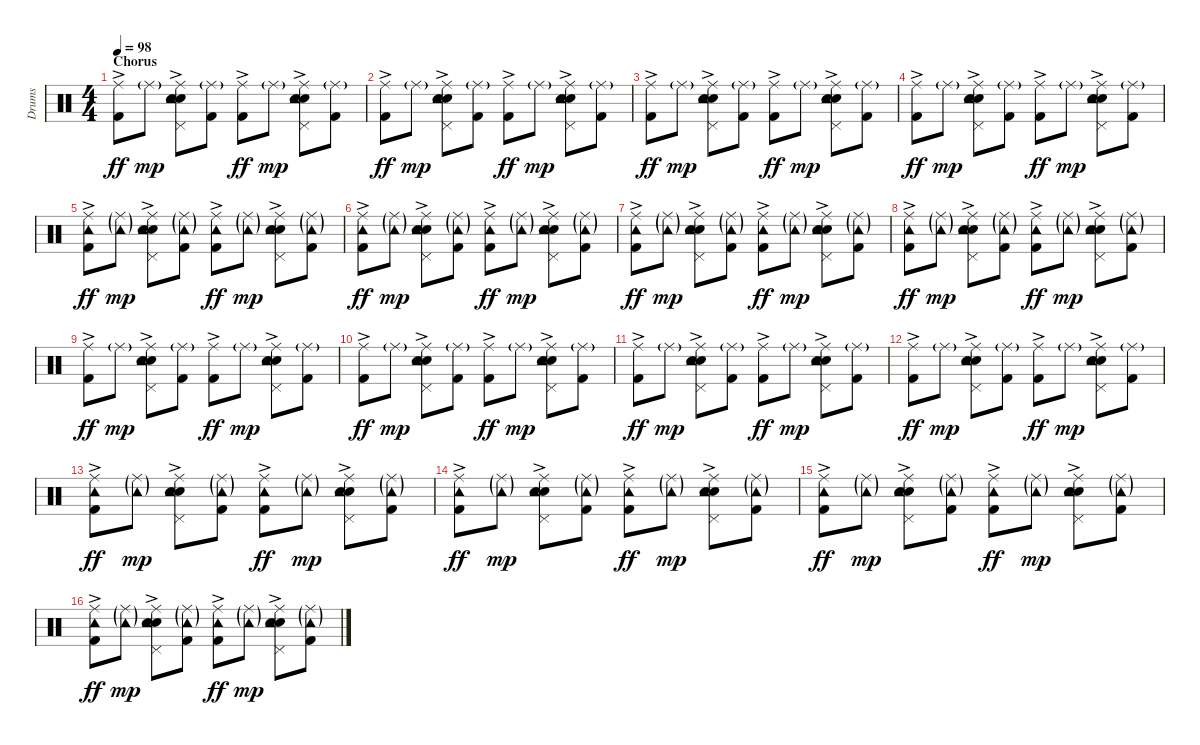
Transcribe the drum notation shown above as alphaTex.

\track ("Drums" "Drums") {instrument percussion}
\staff {score}
\articulation defaults
\ts (4 4)
\section ("" "Chorus")
\tempo 98
\clef neutral
\ks c
("Kick (hit) 2"{ac} "Ride (middle)").8{dy ff} "Ride (middle)"{g}.8{dy mp} ("Electric Snare (hit)"{ac} "Snare (hit) 2" "Pedal Hi-Hat (hit)" "Tambourine (hit)" "Ride (middle)").8 ("Kick (hit) 2" "Ride (middle)"{g}).8 ("Kick (hit) 2"{ac} "Ride (middle)").8{dy ff} "Ride (middle)"{g}.8{dy mp} ("Electric Snare (hit)"{ac} "Snare (hit) 2" "Pedal Hi-Hat (hit)" "Tambourine (hit)" "Ride (middle)").8 ("Kick (hit) 2" "Ride (middle)"{g}).8 |
("Kick (hit) 2"{ac} "Ride (middle)").8{dy ff} "Ride (middle)"{g}.8{dy mp} ("Electric Snare (hit)"{ac} "Snare (hit) 2" "Pedal Hi-Hat (hit)" "Tambourine (hit)" "Ride (middle)").8 ("Kick (hit) 2" "Ride (middle)"{g}).8 ("Kick (hit) 2"{ac} "Ride (middle)").8{dy ff} "Ride (middle)"{g}.8{dy mp} ("Electric Snare (hit)"{ac} "Snare (hit) 2" "Pedal Hi-Hat (hit)" "Tambourine (hit)" "Ride (middle)").8 ("Kick (hit) 2" "Ride (middle)"{g}).8 |
("Kick (hit) 2"{ac} "Ride (middle)").8{dy ff} "Ride (middle)"{g}.8{dy mp} ("Electric Snare (hit)"{ac} "Snare (hit) 2" "Pedal Hi-Hat (hit)" "Tambourine (hit)" "Ride (middle)").8 ("Kick (hit) 2" "Ride (middle)"{g}).8 ("Kick (hit) 2"{ac} "Ride (middle)").8{dy ff} "Ride (middle)"{g}.8{dy mp} ("Electric Snare (hit)"{ac} "Snare (hit) 2" "Pedal Hi-Hat (hit)" "Tambourine (hit)" "Ride (middle)").8 ("Kick (hit) 2" "Ride (middle)"{g}).8 |
("Kick (hit) 2"{ac} "Ride (middle)").8{dy ff} "Ride (middle)"{g}.8{dy mp} ("Electric Snare (hit)"{ac} "Snare (hit) 2" "Pedal Hi-Hat (hit)" "Tambourine (hit)" "Ride (middle)").8 ("Kick (hit) 2" "Ride (middle)"{g}).8 ("Kick (hit) 2"{ac} "Ride (middle)").8{dy ff} "Ride (middle)"{g}.8{dy mp} ("Electric Snare (hit)"{ac} "Snare (hit) 2" "Pedal Hi-Hat (hit)" "Tambourine (hit)" "Ride (middle)").8 ("Kick (hit) 2" "Ride (middle)"{g}).8 |
("Kick (hit) 2"{ac} "Tambourine (hit)" "Ride (middle)").8{dy ff} ("Tambourine (hit)"{g} "Ride (middle)"{g}).8{dy mp} ("Electric Snare (hit)"{ac} "Snare (hit) 2" "Pedal Hi-Hat (hit)" "Tambourine (hit)" "Ride (middle)").8 ("Kick (hit) 2" "Tambourine (hit)"{g} "Ride (middle)"{g}).8 ("Kick (hit) 2"{ac} "Tambourine (hit)" "Ride (middle)").8{dy ff} ("Tambourine (hit)"{g} "Ride (middle)"{g}).8{dy mp} ("Electric Snare (hit)"{ac} "Snare (hit) 2" "Pedal Hi-Hat (hit)" "Tambourine (hit)" "Ride (middle)").8 ("Kick (hit) 2" "Tambourine (hit)"{g} "Ride (middle)"{g}).8 |
("Kick (hit) 2"{ac} "Tambourine (hit)" "Ride (middle)").8{dy ff} ("Tambourine (hit)"{g} "Ride (middle)"{g}).8{dy mp} ("Electric Snare (hit)"{ac} "Snare (hit) 2" "Pedal Hi-Hat (hit)" "Tambourine (hit)" "Ride (middle)").8 ("Kick (hit) 2" "Tambourine (hit)"{g} "Ride (middle)"{g}).8 ("Kick (hit) 2"{ac} "Tambourine (hit)" "Ride (middle)").8{dy ff} ("Tambourine (hit)"{g} "Ride (middle)"{g}).8{dy mp} ("Electric Snare (hit)"{ac} "Snare (hit) 2" "Pedal Hi-Hat (hit)" "Tambourine (hit)" "Ride (middle)").8 ("Kick (hit) 2" "Tambourine (hit)"{g} "Ride (middle)"{g}).8 |
("Kick (hit) 2"{ac} "Tambourine (hit)" "Ride (middle)").8{dy ff} ("Tambourine (hit)"{g} "Ride (middle)"{g}).8{dy mp} ("Electric Snare (hit)"{ac} "Snare (hit) 2" "Pedal Hi-Hat (hit)" "Tambourine (hit)" "Ride (middle)").8 ("Kick (hit) 2" "Tambourine (hit)"{g} "Ride (middle)"{g}).8 ("Kick (hit) 2"{ac} "Tambourine (hit)" "Ride (middle)").8{dy ff} ("Tambourine (hit)"{g} "Ride (middle)"{g}).8{dy mp} ("Electric Snare (hit)"{ac} "Snare (hit) 2" "Pedal Hi-Hat (hit)" "Tambourine (hit)" "Ride (middle)").8 ("Kick (hit) 2" "Tambourine (hit)"{g} "Ride (middle)"{g}).8 |
("Kick (hit) 2"{ac} "Tambourine (hit)" "Ride (middle)").8{dy ff} ("Tambourine (hit)"{g} "Ride (middle)"{g}).8{dy mp} ("Electric Snare (hit)"{ac} "Snare (hit) 2" "Pedal Hi-Hat (hit)" "Tambourine (hit)" "Ride (middle)").8 ("Kick (hit) 2" "Tambourine (hit)"{g} "Ride (middle)"{g}).8 ("Kick (hit) 2"{ac} "Tambourine (hit)" "Ride (middle)").8{dy ff} ("Tambourine (hit)"{g} "Ride (middle)"{g}).8{dy mp} ("Electric Snare (hit)"{ac} "Snare (hit) 2" "Pedal Hi-Hat (hit)" "Tambourine (hit)" "Ride (middle)").8 ("Kick (hit) 2" "Tambourine (hit)"{g} "Ride (middle)"{g}).8 |
("Kick (hit) 2"{ac} "Ride (middle)").8{dy ff} "Ride (middle)"{g}.8{dy mp} ("Electric Snare (hit)"{ac} "Snare (hit) 2" "Pedal Hi-Hat (hit)" "Tambourine (hit)" "Ride (middle)").8 ("Kick (hit) 2" "Ride (middle)"{g}).8 ("Kick (hit) 2"{ac} "Ride (middle)").8{dy ff} "Ride (middle)"{g}.8{dy mp} ("Electric Snare (hit)"{ac} "Snare (hit) 2" "Pedal Hi-Hat (hit)" "Tambourine (hit)" "Ride (middle)").8 ("Kick (hit) 2" "Ride (middle)"{g}).8 |
("Kick (hit) 2"{ac} "Ride (middle)").8{dy ff} "Ride (middle)"{g}.8{dy mp} ("Electric Snare (hit)"{ac} "Snare (hit) 2" "Pedal Hi-Hat (hit)" "Tambourine (hit)" "Ride (middle)").8 ("Kick (hit) 2" "Ride (middle)"{g}).8 ("Kick (hit) 2"{ac} "Ride (middle)").8{dy ff} "Ride (middle)"{g}.8{dy mp} ("Electric Snare (hit)"{ac} "Snare (hit) 2" "Pedal Hi-Hat (hit)" "Tambourine (hit)" "Ride (middle)").8 ("Kick (hit) 2" "Ride (middle)"{g}).8 |
("Kick (hit) 2"{ac} "Ride (middle)").8{dy ff} "Ride (middle)"{g}.8{dy mp} ("Electric Snare (hit)"{ac} "Snare (hit) 2" "Pedal Hi-Hat (hit)" "Tambourine (hit)" "Ride (middle)").8 ("Kick (hit) 2" "Ride (middle)"{g}).8 ("Kick (hit) 2"{ac} "Ride (middle)").8{dy ff} "Ride (middle)"{g}.8{dy mp} ("Electric Snare (hit)"{ac} "Snare (hit) 2" "Pedal Hi-Hat (hit)" "Tambourine (hit)" "Ride (middle)").8 ("Kick (hit) 2" "Ride (middle)"{g}).8 |
("Kick (hit) 2"{ac} "Ride (middle)").8{dy ff} "Ride (middle)"{g}.8{dy mp} ("Electric Snare (hit)"{ac} "Snare (hit) 2" "Pedal Hi-Hat (hit)" "Tambourine (hit)" "Ride (middle)").8 ("Kick (hit) 2" "Ride (middle)"{g}).8 ("Kick (hit) 2"{ac} "Ride (middle)").8{dy ff} "Ride (middle)"{g}.8{dy mp} ("Electric Snare (hit)"{ac} "Snare (hit) 2" "Pedal Hi-Hat (hit)" "Tambourine (hit)" "Ride (middle)").8 ("Kick (hit) 2" "Ride (middle)"{g}).8 |
("Kick (hit) 2"{ac} "Tambourine (hit)" "Ride (middle)").8{dy ff} ("Tambourine (hit)"{g} "Ride (middle)"{g}).8{dy mp} ("Electric Snare (hit)"{ac} "Snare (hit) 2" "Pedal Hi-Hat (hit)" "Tambourine (hit)" "Ride (middle)").8 ("Kick (hit) 2" "Tambourine (hit)"{g} "Ride (middle)"{g}).8 ("Kick (hit) 2"{ac} "Tambourine (hit)" "Ride (middle)").8{dy ff} ("Tambourine (hit)"{g} "Ride (middle)"{g}).8{dy mp} ("Electric Snare (hit)"{ac} "Snare (hit) 2" "Pedal Hi-Hat (hit)" "Tambourine (hit)" "Ride (middle)").8 ("Kick (hit) 2" "Tambourine (hit)"{g} "Ride (middle)"{g}).8 |
("Kick (hit) 2"{ac} "Tambourine (hit)" "Ride (middle)").8{dy ff} ("Tambourine (hit)"{g} "Ride (middle)"{g}).8{dy mp} ("Electric Snare (hit)"{ac} "Snare (hit) 2" "Pedal Hi-Hat (hit)" "Tambourine (hit)" "Ride (middle)").8 ("Kick (hit) 2" "Tambourine (hit)"{g} "Ride (middle)"{g}).8 ("Kick (hit) 2"{ac} "Tambourine (hit)" "Ride (middle)").8{dy ff} ("Tambourine (hit)"{g} "Ride (middle)"{g}).8{dy mp} ("Electric Snare (hit)"{ac} "Snare (hit) 2" "Pedal Hi-Hat (hit)" "Tambourine (hit)" "Ride (middle)").8 ("Kick (hit) 2" "Tambourine (hit)"{g} "Ride (middle)"{g}).8 |
("Kick (hit) 2"{ac} "Tambourine (hit)" "Ride (middle)").8{dy ff} ("Tambourine (hit)"{g} "Ride (middle)"{g}).8{dy mp} ("Electric Snare (hit)"{ac} "Snare (hit) 2" "Pedal Hi-Hat (hit)" "Tambourine (hit)" "Ride (middle)").8 ("Kick (hit) 2" "Tambourine (hit)"{g} "Ride (middle)"{g}).8 ("Kick (hit) 2"{ac} "Tambourine (hit)" "Ride (middle)").8{dy ff} ("Tambourine (hit)"{g} "Ride (middle)"{g}).8{dy mp} ("Electric Snare (hit)"{ac} "Snare (hit) 2" "Pedal Hi-Hat (hit)" "Tambourine (hit)" "Ride (middle)").8 ("Kick (hit) 2" "Tambourine (hit)"{g} "Ride (middle)"{g}).8 |
("Kick (hit) 2"{ac} "Tambourine (hit)" "Ride (middle)").8{dy ff} ("Tambourine (hit)"{g} "Ride (middle)"{g}).8{dy mp} ("Electric Snare (hit)"{ac} "Snare (hit) 2" "Pedal Hi-Hat (hit)" "Tambourine (hit)" "Ride (middle)").8 ("Kick (hit) 2" "Tambourine (hit)"{g} "Ride (middle)"{g}).8 ("Kick (hit) 2"{ac} "Tambourine (hit)" "Ride (middle)").8{dy ff} ("Tambourine (hit)"{g} "Ride (middle)"{g}).8{dy mp} ("Electric Snare (hit)"{ac} "Snare (hit) 2" "Pedal Hi-Hat (hit)" "Tambourine (hit)" "Ride (middle)").8 ("Kick (hit) 2" "Tambourine (hit)"{g} "Ride (middle)"{g}).8
